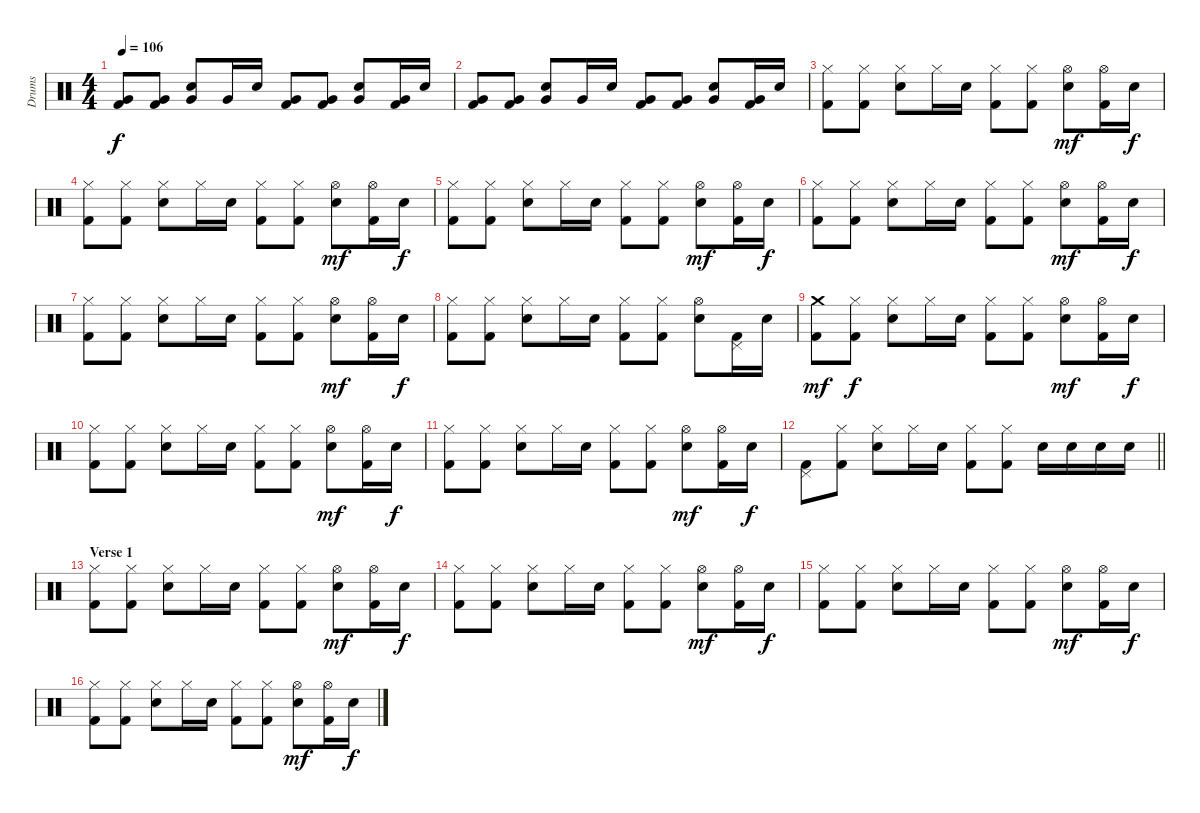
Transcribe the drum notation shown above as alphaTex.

\track ("Drums" "Drums") {instrument percussion}
\staff {score}
\articulation defaults
\ts (4 4)
\tempo 106
\clef neutral
\ks c
("Very Low Tom (hit)" "Kick (hit) 2").8{dy f} ("Very Low Tom (hit)" "Kick (hit) 2").8 ("Electric Snare (hit)" "Very Low Tom (hit)").8 "Very Low Tom (hit)".16 "Electric Snare (hit)".16 ("Very Low Tom (hit)" "Kick (hit) 2").8 ("Very Low Tom (hit)" "Kick (hit) 2").8 ("Electric Snare (hit)" "Very Low Tom (hit)").8 ("Very Low Tom (hit)" "Kick (hit) 2").16 "Electric Snare (hit)".16 |
("Very Low Tom (hit)" "Kick (hit) 2").8 ("Very Low Tom (hit)" "Kick (hit) 2").8 ("Electric Snare (hit)" "Very Low Tom (hit)").8 "Very Low Tom (hit)".16 "Electric Snare (hit)".16 ("Very Low Tom (hit)" "Kick (hit) 2").8 ("Very Low Tom (hit)" "Kick (hit) 2").8 ("Electric Snare (hit)" "Very Low Tom (hit)").8 ("Very Low Tom (hit)" "Kick (hit) 2").16 "Electric Snare (hit)".16 |
("Hi-Hat (closed)" "Kick (hit) 2").8 ("Hi-Hat (closed)" "Kick (hit) 2").8 ("Hi-Hat (closed)" "Electric Snare (hit)").8 "Hi-Hat (closed)".16 "Electric Snare (hit)".16 ("Hi-Hat (closed)" "Kick (hit) 2").8 ("Hi-Hat (closed)" "Kick (hit) 2").8 ("Hi-Hat (open)" "Electric Snare (hit)").8{dy mf} ("Hi-Hat (open)" "Kick (hit) 2").16 "Electric Snare (hit)".16{dy f} |
("Hi-Hat (closed)" "Kick (hit) 2").8 ("Hi-Hat (closed)" "Kick (hit) 2").8 ("Hi-Hat (closed)" "Electric Snare (hit)").8 "Hi-Hat (closed)".16 "Electric Snare (hit)".16 ("Hi-Hat (closed)" "Kick (hit) 2").8 ("Hi-Hat (closed)" "Kick (hit) 2").8 ("Hi-Hat (open)" "Electric Snare (hit)").8{dy mf} ("Hi-Hat (open)" "Kick (hit) 2").16 "Electric Snare (hit)".16{dy f} |
("Hi-Hat (closed)" "Kick (hit) 2").8 ("Hi-Hat (closed)" "Kick (hit) 2").8 ("Hi-Hat (closed)" "Electric Snare (hit)").8 "Hi-Hat (closed)".16 "Electric Snare (hit)".16 ("Hi-Hat (closed)" "Kick (hit) 2").8 ("Hi-Hat (closed)" "Kick (hit) 2").8 ("Hi-Hat (open)" "Electric Snare (hit)").8{dy mf} ("Hi-Hat (open)" "Kick (hit) 2").16 "Electric Snare (hit)".16{dy f} |
("Hi-Hat (closed)" "Kick (hit) 2").8 ("Hi-Hat (closed)" "Kick (hit) 2").8 ("Hi-Hat (closed)" "Electric Snare (hit)").8 "Hi-Hat (closed)".16 "Electric Snare (hit)".16 ("Hi-Hat (closed)" "Kick (hit) 2").8 ("Hi-Hat (closed)" "Kick (hit) 2").8 ("Hi-Hat (open)" "Electric Snare (hit)").8{dy mf} ("Hi-Hat (open)" "Kick (hit) 2").16 "Electric Snare (hit)".16{dy f} |
("Hi-Hat (closed)" "Kick (hit) 2").8 ("Hi-Hat (closed)" "Kick (hit) 2").8 ("Hi-Hat (closed)" "Electric Snare (hit)").8 "Hi-Hat (closed)".16 "Electric Snare (hit)".16 ("Hi-Hat (closed)" "Kick (hit) 2").8 ("Hi-Hat (closed)" "Kick (hit) 2").8 ("Hi-Hat (open)" "Electric Snare (hit)").8{dy mf} ("Hi-Hat (open)" "Kick (hit) 2").16 "Electric Snare (hit)".16{dy f} |
("Hi-Hat (closed)" "Kick (hit) 2").8 ("Hi-Hat (closed)" "Kick (hit) 2").8 ("Hi-Hat (closed)" "Electric Snare (hit)").8 "Hi-Hat (closed)".16 "Electric Snare (hit)".16 ("Hi-Hat (closed)" "Kick (hit) 2").8 ("Hi-Hat (closed)" "Kick (hit) 2").8 ("Hi-Hat (open)" "Electric Snare (hit)").8 ("Pedal Hi-Hat (hit)" "Kick (hit) 2").16 "Electric Snare (hit)".16 |
("Crash medium (hit)" "Kick (hit) 2").8{dy mf} ("Hi-Hat (closed)" "Kick (hit) 2").8{dy f} ("Hi-Hat (closed)" "Electric Snare (hit)").8 "Hi-Hat (closed)".16 "Electric Snare (hit)".16 ("Hi-Hat (closed)" "Kick (hit) 2").8 ("Hi-Hat (closed)" "Kick (hit) 2").8 ("Hi-Hat (open)" "Electric Snare (hit)").8{dy mf} ("Hi-Hat (open)" "Kick (hit) 2").16 "Electric Snare (hit)".16{dy f} |
("Hi-Hat (closed)" "Kick (hit) 2").8 ("Hi-Hat (closed)" "Kick (hit) 2").8 ("Hi-Hat (closed)" "Electric Snare (hit)").8 "Hi-Hat (closed)".16 "Electric Snare (hit)".16 ("Hi-Hat (closed)" "Kick (hit) 2").8 ("Hi-Hat (closed)" "Kick (hit) 2").8 ("Hi-Hat (open)" "Electric Snare (hit)").8{dy mf} ("Hi-Hat (open)" "Kick (hit) 2").16 "Electric Snare (hit)".16{dy f} |
("Hi-Hat (closed)" "Kick (hit) 2").8 ("Hi-Hat (closed)" "Kick (hit) 2").8 ("Hi-Hat (closed)" "Electric Snare (hit)").8 "Hi-Hat (closed)".16 "Electric Snare (hit)".16 ("Hi-Hat (closed)" "Kick (hit) 2").8 ("Hi-Hat (closed)" "Kick (hit) 2").8 ("Hi-Hat (open)" "Electric Snare (hit)").8{dy mf} ("Hi-Hat (open)" "Kick (hit) 2").16 "Electric Snare (hit)".16{dy f} |
\barLineRight lightlight
("Pedal Hi-Hat (hit)" "Kick (hit) 2").8 ("Hi-Hat (closed)" "Kick (hit) 2").8 ("Hi-Hat (closed)" "Electric Snare (hit)").8 "Hi-Hat (closed)".16 "Electric Snare (hit)".16 ("Hi-Hat (closed)" "Kick (hit) 2").8 ("Hi-Hat (closed)" "Kick (hit) 2").8 "Electric Snare (hit)".16 "Electric Snare (hit)".16 "Electric Snare (hit)".16 "Electric Snare (hit)".16 |
\section ("" "Verse 1")
("Hi-Hat (closed)" "Kick (hit) 2").8 ("Hi-Hat (closed)" "Kick (hit) 2").8 ("Hi-Hat (closed)" "Electric Snare (hit)").8 "Hi-Hat (closed)".16 "Electric Snare (hit)".16 ("Hi-Hat (closed)" "Kick (hit) 2").8 ("Hi-Hat (closed)" "Kick (hit) 2").8 ("Hi-Hat (open)" "Electric Snare (hit)").8{dy mf} ("Hi-Hat (open)" "Kick (hit) 2").16 "Electric Snare (hit)".16{dy f} |
("Hi-Hat (closed)" "Kick (hit) 2").8 ("Hi-Hat (closed)" "Kick (hit) 2").8 ("Hi-Hat (closed)" "Electric Snare (hit)").8 "Hi-Hat (closed)".16 "Electric Snare (hit)".16 ("Hi-Hat (closed)" "Kick (hit) 2").8 ("Hi-Hat (closed)" "Kick (hit) 2").8 ("Hi-Hat (open)" "Electric Snare (hit)").8{dy mf} ("Hi-Hat (open)" "Kick (hit) 2").16 "Electric Snare (hit)".16{dy f} |
("Hi-Hat (closed)" "Kick (hit) 2").8 ("Hi-Hat (closed)" "Kick (hit) 2").8 ("Hi-Hat (closed)" "Electric Snare (hit)").8 "Hi-Hat (closed)".16 "Electric Snare (hit)".16 ("Hi-Hat (closed)" "Kick (hit) 2").8 ("Hi-Hat (closed)" "Kick (hit) 2").8 ("Hi-Hat (open)" "Electric Snare (hit)").8{dy mf} ("Hi-Hat (open)" "Kick (hit) 2").16 "Electric Snare (hit)".16{dy f} |
("Hi-Hat (closed)" "Kick (hit) 2").8 ("Hi-Hat (closed)" "Kick (hit) 2").8 ("Hi-Hat (closed)" "Electric Snare (hit)").8 "Hi-Hat (closed)".16 "Electric Snare (hit)".16 ("Hi-Hat (closed)" "Kick (hit) 2").8 ("Hi-Hat (closed)" "Kick (hit) 2").8 ("Hi-Hat (open)" "Electric Snare (hit)").8{dy mf} ("Hi-Hat (open)" "Kick (hit) 2").16 "Electric Snare (hit)".16{dy f}
